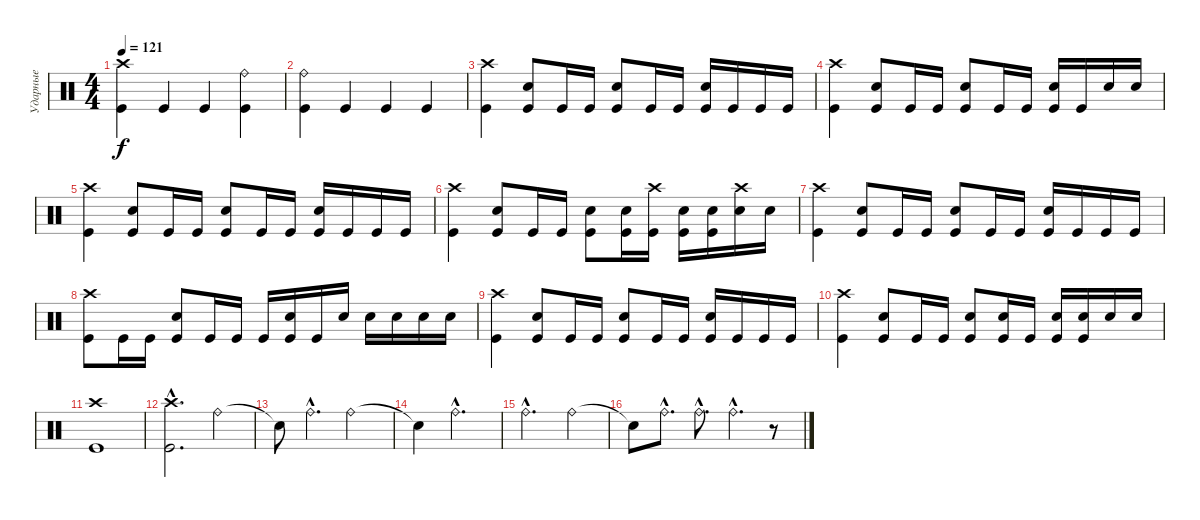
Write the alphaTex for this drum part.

\track ("Ударные" "Ударные") {instrument percussion}
\staff {score}
\articulation defaults
\ts (4 4)
\tempo 121
\clef neutral
\ks c
("Crash high (hit)" "Kick (hit)").4{dy f} "Kick (hit)".4 "Kick (hit)".4 ("Ride (bell)" "Kick (hit)").4 |
("Ride (bell)" "Kick (hit)").4 "Kick (hit)".4 "Kick (hit)".4 "Kick (hit)".4 |
("Crash high (hit)" "Kick (hit)").4 ("Electric Snare (hit)" "Kick (hit)").8 "Kick (hit)".16 "Kick (hit)".16 ("Electric Snare (hit)" "Kick (hit)").8 "Kick (hit)".16 "Kick (hit)".16 ("Electric Snare (hit)" "Kick (hit)").16 "Kick (hit)".16 "Kick (hit)".16 "Kick (hit)".16 |
("Crash high (hit)" "Kick (hit)").4 ("Electric Snare (hit)" "Kick (hit)").8 "Kick (hit)".16 "Kick (hit)".16 ("Electric Snare (hit)" "Kick (hit)").8 "Kick (hit)".16 "Kick (hit)".16 ("Electric Snare (hit)" "Kick (hit)").16 "Kick (hit)".16 "Electric Snare (hit)".16 "Electric Snare (hit)".16 |
("Crash high (hit)" "Kick (hit)").4 ("Electric Snare (hit)" "Kick (hit)").8 "Kick (hit)".16 "Kick (hit)".16 ("Electric Snare (hit)" "Kick (hit)").8 "Kick (hit)".16 "Kick (hit)".16 ("Electric Snare (hit)" "Kick (hit)").16 "Kick (hit)".16 "Kick (hit)".16 "Kick (hit)".16 |
("Crash high (hit)" "Kick (hit)").4 ("Electric Snare (hit)" "Kick (hit)").8 "Kick (hit)".16 "Kick (hit)".16 ("Electric Snare (hit)" "Kick (hit)").8 ("Electric Snare (hit)" "Kick (hit)").16 ("Crash high (hit)" "Kick (hit)").16 ("Electric Snare (hit)" "Kick (hit)").16 ("Electric Snare (hit)" "Kick (hit)").16 ("Crash high (hit)" "Electric Snare (hit)").16 "Electric Snare (hit)".16 |
("Crash high (hit)" "Kick (hit)").4 ("Electric Snare (hit)" "Kick (hit)").8 "Kick (hit)".16 "Kick (hit)".16 ("Electric Snare (hit)" "Kick (hit)").8 "Kick (hit)".16 "Kick (hit)".16 ("Electric Snare (hit)" "Kick (hit)").16 "Kick (hit)".16 "Kick (hit)".16 "Kick (hit)".16 |
("Crash high (hit)" "Kick (hit)").8 "Kick (hit)".16 "Kick (hit)".16 ("Electric Snare (hit)" "Kick (hit)").8 "Kick (hit)".16 "Kick (hit)".16 "Kick (hit)".16 ("Electric Snare (hit)" "Kick (hit)").16 "Kick (hit)".16 "Electric Snare (hit)".16 "Electric Snare (hit)".16 "Electric Snare (hit)".16 "Electric Snare (hit)".16 "Electric Snare (hit)".16 |
("Crash high (hit)" "Kick (hit)").4 ("Electric Snare (hit)" "Kick (hit)").8 "Kick (hit)".16 "Kick (hit)".16 ("Electric Snare (hit)" "Kick (hit)").8 "Kick (hit)".16 "Kick (hit)".16 ("Electric Snare (hit)" "Kick (hit)").16 "Kick (hit)".16 "Kick (hit)".16 "Kick (hit)".16 |
("Crash high (hit)" "Kick (hit)").4 ("Electric Snare (hit)" "Kick (hit)").8 "Kick (hit)".16 "Kick (hit)".16 ("Electric Snare (hit)" "Kick (hit)").8 ("Electric Snare (hit)" "Kick (hit)").16 "Kick (hit)".16 ("Electric Snare (hit)" "Kick (hit)").16 ("Electric Snare (hit)" "Kick (hit)").16 "Electric Snare (hit)".16 "Electric Snare (hit)".16 |
("Crash high (hit)" "Kick (hit)").1 |
("Crash high (hit)"{hac} "Kick (hit)"{hac}).2{d} "Ride (bell)".4 |
"Snare (hit)"{t}.8 "Ride (bell)"{hac}.4{d} "Ride (bell)".2 |
"Snare (hit)"{t}.4 "Ride (bell)"{hac}.2{d} |
"Ride (bell)"{hac}.2{d} "Ride (bell)".4 |
"Snare (hit)"{t}.8 "Ride (bell)"{hac}.8{d} "Ride (bell)"{hac}.8{d} "Ride (bell)"{hac}.4{d} r.8
